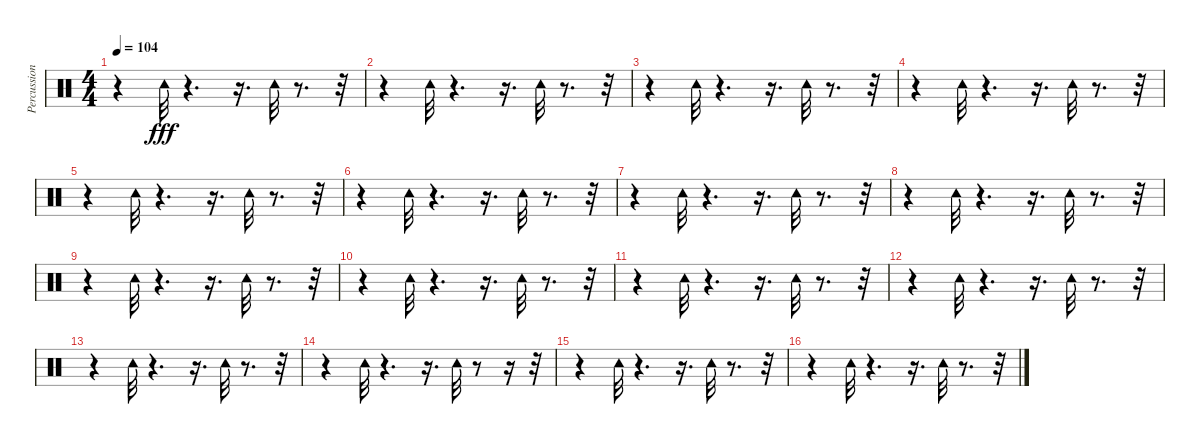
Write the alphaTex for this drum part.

\track ("Percussion" "Percussion") {instrument percussion}
\staff {score}
\articulation defaults
\ts (4 4)
\tempo 104
\clef neutral
\ks c
r.4{dy fff} "Tambourine (hit)".32 r.4{d} r.16{d} "Tambourine (hit)".32 r.8{d} r.32 |
r.4 "Tambourine (hit)".32 r.4{d} r.16{d} "Tambourine (hit)".32 r.8{d} r.32 |
r.4 "Tambourine (hit)".32 r.4{d} r.16{d} "Tambourine (hit)".32 r.8{d} r.32 |
r.4 "Tambourine (hit)".32 r.4{d} r.16{d} "Tambourine (hit)".32 r.8{d} r.32 |
r.4 "Tambourine (hit)".32 r.4{d} r.16{d} "Tambourine (hit)".32 r.8{d} r.32 |
r.4 "Tambourine (hit)".32 r.4{d} r.16{d} "Tambourine (hit)".32 r.8{d} r.32 |
r.4 "Tambourine (hit)".32 r.4{d} r.16{d} "Tambourine (hit)".32 r.8{d} r.32 |
r.4 "Tambourine (hit)".32 r.4{d} r.16{d} "Tambourine (hit)".32 r.8{d} r.32 |
r.4 "Tambourine (hit)".32 r.4{d} r.16{d} "Tambourine (hit)".32 r.8{d} r.32 |
r.4 "Tambourine (hit)".32 r.4{d} r.16{d} "Tambourine (hit)".32 r.8{d} r.32 |
r.4 "Tambourine (hit)".32 r.4{d} r.16{d} "Tambourine (hit)".32 r.8{d} r.32 |
r.4 "Tambourine (hit)".32 r.4{d} r.16{d} "Tambourine (hit)".32 r.8{d} r.32 |
r.4 "Tambourine (hit)".32 r.4{d} r.16{d} "Tambourine (hit)".32 r.8{d} r.32 |
r.4 "Tambourine (hit)".32 r.4{d} r.16{d} "Tambourine (hit)".32 r.8 r.16 r.32 |
r.4 "Tambourine (hit)".32 r.4{d} r.16{d} "Tambourine (hit)".32 r.8{d} r.32 |
r.4 "Tambourine (hit)".32 r.4{d} r.16{d} "Tambourine (hit)".32 r.8{d} r.32
